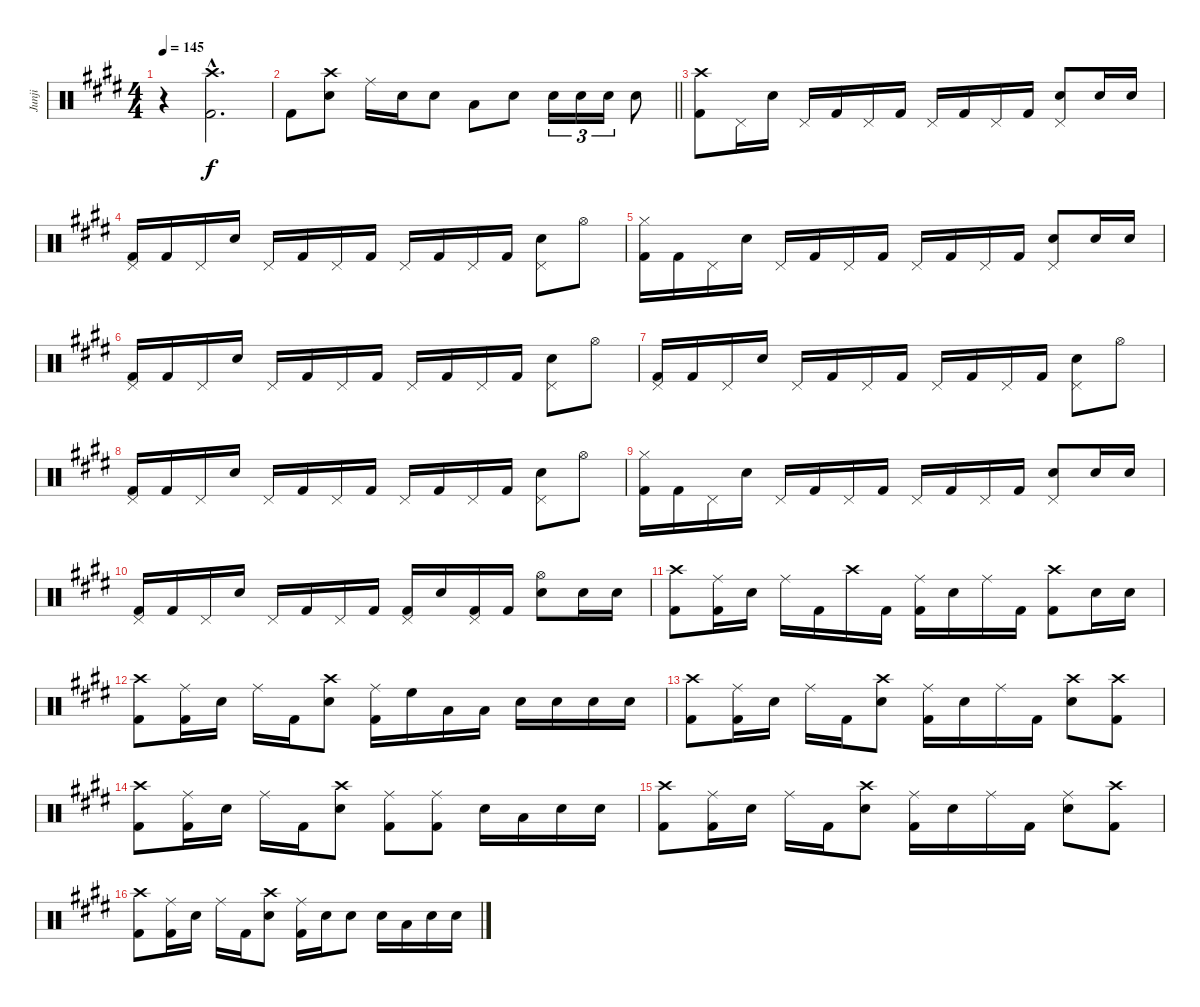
\track ("Junji" "Junji") {instrument percussion}
\staff {score}
\articulation defaults
\ts (4 4)
\tempo 145
\clef neutral
\ks c#minor
r.4{dy f} ("Crash high (hit)"{hac} "Kick (hit) 2"{hac}).2{d} |
\barLineRight lightlight "Kick (hit) 2".8
("Crash high (hit)" "Snare (hit) 2").8 "Ride (middle)".16 "Snare (hit) 2".16 "Snare (hit) 2".8 "Low Tom (hit)".8 "Electric Snare (hit)".8 "Snare (hit) 2".16{tu (3 2)} "Snare (hit) 2".16{tu (3 2)} "Snare (hit) 2".16{tu (3 2)} "Snare (hit) 2".8 |
("Crash high (hit)" "Kick (hit) 2").8 "Pedal Hi-Hat (hit)".16 "Snare (hit) 2".16 "Pedal Hi-Hat (hit)".16 "Kick (hit) 2".16 "Pedal Hi-Hat (hit)".16 "Kick (hit) 2".16 "Pedal Hi-Hat (hit)".16 "Kick (hit) 2".16 "Pedal Hi-Hat (hit)".16 "Kick (hit) 2".16 ("Pedal Hi-Hat (hit)" "Snare (hit) 2").8 "Snare (hit) 2".16 "Snare (hit) 2".16 |
("Pedal Hi-Hat (hit)" "Kick (hit) 2").16 "Kick (hit) 2".16 "Pedal Hi-Hat (hit)".16 "Snare (hit) 2".16 "Pedal Hi-Hat (hit)".16 "Kick (hit) 2".16 "Pedal Hi-Hat (hit)".16 "Kick (hit) 2".16 "Pedal Hi-Hat (hit)".16 "Kick (hit) 2".16 "Pedal Hi-Hat (hit)".16 "Kick (hit) 2".16 ("Pedal Hi-Hat (hit)" "Snare (hit) 2").8 "Hi-Hat (open)".8 |
("Hi-Hat (closed)" "Kick (hit) 2").16 "Kick (hit) 2".16 "Pedal Hi-Hat (hit)".16 "Snare (hit) 2".16 "Pedal Hi-Hat (hit)".16 "Kick (hit) 2".16 "Pedal Hi-Hat (hit)".16 "Kick (hit) 2".16 "Pedal Hi-Hat (hit)".16 "Kick (hit) 2".16 "Pedal Hi-Hat (hit)".16 "Kick (hit) 2".16 ("Pedal Hi-Hat (hit)" "Snare (hit) 2").8 "Snare (hit) 2".16 "Snare (hit) 2".16 |
("Pedal Hi-Hat (hit)" "Kick (hit) 2").16 "Kick (hit) 2".16 "Pedal Hi-Hat (hit)".16 "Snare (hit) 2".16 "Pedal Hi-Hat (hit)".16 "Kick (hit) 2".16 "Pedal Hi-Hat (hit)".16 "Kick (hit) 2".16 "Pedal Hi-Hat (hit)".16 "Kick (hit) 2".16 "Pedal Hi-Hat (hit)".16 "Kick (hit) 2".16 ("Pedal Hi-Hat (hit)" "Snare (hit) 2").8 "Hi-Hat (open)".8 |
("Pedal Hi-Hat (hit)" "Kick (hit) 2").16 "Kick (hit) 2".16 "Pedal Hi-Hat (hit)".16 "Snare (hit) 2".16 "Pedal Hi-Hat (hit)".16 "Kick (hit) 2".16 "Pedal Hi-Hat (hit)".16 "Kick (hit) 2".16 "Pedal Hi-Hat (hit)".16 "Kick (hit) 2".16 "Pedal Hi-Hat (hit)".16 "Kick (hit) 2".16 ("Pedal Hi-Hat (hit)" "Snare (hit) 2").8 "Hi-Hat (open)".8 |
("Pedal Hi-Hat (hit)" "Kick (hit) 2").16 "Kick (hit) 2".16 "Pedal Hi-Hat (hit)".16 "Snare (hit) 2".16 "Pedal Hi-Hat (hit)".16 "Kick (hit) 2".16 "Pedal Hi-Hat (hit)".16 "Kick (hit) 2".16 "Pedal Hi-Hat (hit)".16 "Kick (hit) 2".16 "Pedal Hi-Hat (hit)".16 "Kick (hit) 2".16 ("Pedal Hi-Hat (hit)" "Snare (hit) 2").8 "Hi-Hat (open)".8 |
("Hi-Hat (closed)" "Kick (hit) 2").16 "Kick (hit) 2".16 "Pedal Hi-Hat (hit)".16 "Snare (hit) 2".16 "Pedal Hi-Hat (hit)".16 "Kick (hit) 2".16 "Pedal Hi-Hat (hit)".16 "Kick (hit) 2".16 "Pedal Hi-Hat (hit)".16 "Kick (hit) 2".16 "Pedal Hi-Hat (hit)".16 "Kick (hit) 2".16 ("Pedal Hi-Hat (hit)" "Snare (hit) 2").8 "Snare (hit) 2".16 "Snare (hit) 2".16 |
("Pedal Hi-Hat (hit)" "Kick (hit) 2").16 "Kick (hit) 2".16 "Pedal Hi-Hat (hit)".16 "Snare (hit) 2".16 "Pedal Hi-Hat (hit)".16 "Kick (hit) 2".16 "Pedal Hi-Hat (hit)".16 "Kick (hit) 2".16 ("Pedal Hi-Hat (hit)" "Kick (hit) 2").16 "Snare (hit) 2".16 ("Pedal Hi-Hat (hit)" "Kick (hit) 2").16 "Kick (hit) 2".16 ("Hi-Hat (open)" "Snare (hit) 2").8 "Snare (hit) 2".16 "Snare (hit) 2".16 |
("Crash high (hit)" "Kick (hit) 2").8 ("Ride (middle)" "Kick (hit) 2").16 "Snare (hit) 2".16 "Ride (middle)".16 "Kick (hit) 2".16 "Crash high (hit)".16 "Kick (hit) 2".16 ("Ride (middle)" "Kick (hit) 2").16 "Snare (hit) 2".16 "Ride (middle)".16 "Kick (hit) 2".16 ("Crash high (hit)" "Kick (hit) 2").8 "Electric Snare (hit)".16 "Electric Snare (hit)".16 |
("Crash high (hit)" "Kick (hit) 2").8 ("Ride (middle)" "Kick (hit) 2").16 "Snare (hit) 2".16 "Ride (middle)".16 "Kick (hit) 2".16 ("Crash high (hit)" "Snare (hit) 2").8 ("Ride (middle)" "Kick (hit) 2").16 "High Floor Tom (hit)".16 "Low Tom (hit)".16 "Low Tom (hit)".16 "Snare (hit) 2".16 "Electric Snare (hit)".16 "Electric Snare (hit)".16 "Electric Snare (hit)".16 |
("Crash high (hit)" "Kick (hit) 2").8 ("Ride (middle)" "Kick (hit) 2").16 "Snare (hit) 2".16 "Ride (middle)".16 "Kick (hit) 2".16 ("Crash high (hit)" "Snare (hit) 2").8 ("Ride (middle)" "Kick (hit) 2").16 "Snare (hit) 2".16 "Ride (middle)".16 "Kick (hit) 2".16 ("Crash high (hit)" "Snare (hit) 2").8 ("Crash high (hit)" "Kick (hit) 2").8 |
("Crash high (hit)" "Kick (hit) 2").8 ("Ride (middle)" "Kick (hit) 2").16 "Snare (hit) 2".16 "Ride (middle)".16 "Kick (hit) 2".16 ("Crash high (hit)" "Snare (hit) 2").8 ("Ride (middle)" "Kick (hit) 2").8 ("Ride (middle)" "Kick (hit) 2").8 "Snare (hit) 2".16 "Low Tom (hit)".16 "Electric Snare (hit)".16 "Electric Snare (hit)".16 |
("Crash high (hit)" "Kick (hit) 2").8 ("Ride (middle)" "Kick (hit) 2").16 "Snare (hit) 2".16 "Ride (middle)".16 "Kick (hit) 2".16 ("Crash high (hit)" "Snare (hit) 2").8 ("Ride (middle)" "Kick (hit) 2").16 "Snare (hit) 2".16 "Ride (middle)".16 "Kick (hit) 2".16 ("Ride (middle)" "Snare (hit) 2").8 ("Crash high (hit)" "Kick (hit) 2").8 |
("Crash high (hit)" "Kick (hit) 2").8 ("Ride (middle)" "Kick (hit) 2").16 "Snare (hit) 2".16 "Ride (middle)".16 "Kick (hit) 2".16 ("Crash high (hit)" "Snare (hit) 2").8 ("Ride (middle)" "Kick (hit) 2").16 "Snare (hit) 2".16 "Electric Snare (hit)".8 "Snare (hit) 2".16 "Low Tom (hit)".16 "Electric Snare (hit)".16 "Electric Snare (hit)".16
